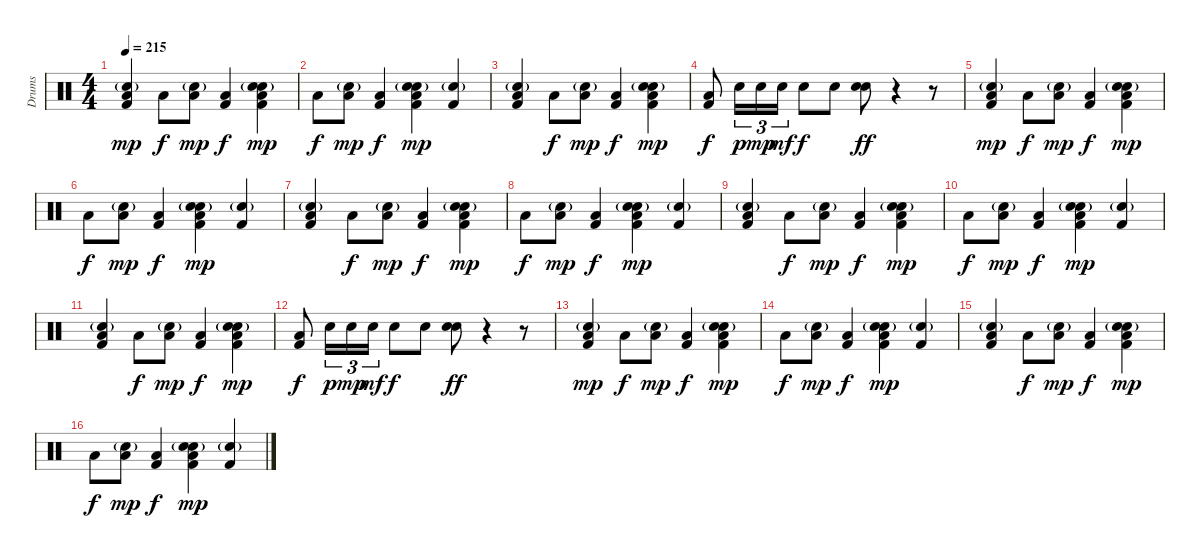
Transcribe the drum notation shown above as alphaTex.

\track ("Drums" "Drums") {instrument percussion}
\staff {score}
\articulation defaults
\ts (4 4)
\tempo 215
\clef neutral
\ks c
("Electric Snare (hit)"{g} "Low Floor Tom (hit)" "Kick (hit) 2").4{dy mp} "Low Floor Tom (hit)".8{dy f} ("Electric Snare (hit)"{g} "Low Floor Tom (hit)").8{dy mp} ("Low Floor Tom (hit)" "Kick (hit) 2").4{dy f} ("Electric Snare (hit)" "Kick (hit) 2" "Low Floor Tom (hit)" "Snare (hit) 2"{g}).4{dy mp} |
"Low Floor Tom (hit)".8{dy f} ("Electric Snare (hit)"{g} "Low Floor Tom (hit)").8{dy mp} ("Low Floor Tom (hit)" "Kick (hit) 2").4{dy f} ("Snare (hit) 2"{g} "Electric Snare (hit)" "Kick (hit) 2" "Low Floor Tom (hit)").4{dy mp} ("Electric Snare (hit)"{g} "Kick (hit) 2").4 |
("Electric Snare (hit)"{g} "Low Floor Tom (hit)" "Kick (hit) 2").4 "Low Floor Tom (hit)".8{dy f} ("Electric Snare (hit)"{g} "Low Floor Tom (hit)").8{dy mp} ("Low Floor Tom (hit)" "Kick (hit) 2").4{dy f} ("Electric Snare (hit)" "Kick (hit) 2" "Low Floor Tom (hit)" "Snare (hit) 2"{g}).4{dy mp} |
("Low Floor Tom (hit)" "Kick (hit) 2").8{dy f} "Snare (hit) 2".16{tu (3 2) dy p} "Snare (hit) 2".16{tu (3 2) dy mp} "Snare (hit) 2".16{tu (3 2) dy mf} "Snare (hit) 2".8{dy f} "Snare (hit) 2".8 ("Electric Snare (hit)" "Snare (hit) 2").8{dy ff} r.4 r.8 |
("Electric Snare (hit)"{g} "Low Floor Tom (hit)" "Kick (hit) 2").4{dy mp} "Low Floor Tom (hit)".8{dy f} ("Electric Snare (hit)"{g} "Low Floor Tom (hit)").8{dy mp} ("Low Floor Tom (hit)" "Kick (hit) 2").4{dy f} ("Electric Snare (hit)" "Kick (hit) 2" "Low Floor Tom (hit)" "Snare (hit) 2"{g}).4{dy mp} |
"Low Floor Tom (hit)".8{dy f} ("Electric Snare (hit)"{g} "Low Floor Tom (hit)").8{dy mp} ("Low Floor Tom (hit)" "Kick (hit) 2").4{dy f} ("Snare (hit) 2"{g} "Electric Snare (hit)" "Kick (hit) 2" "Low Floor Tom (hit)").4{dy mp} ("Electric Snare (hit)"{g} "Kick (hit) 2").4 |
("Electric Snare (hit)"{g} "Low Floor Tom (hit)" "Kick (hit) 2").4 "Low Floor Tom (hit)".8{dy f} ("Electric Snare (hit)"{g} "Low Floor Tom (hit)").8{dy mp} ("Low Floor Tom (hit)" "Kick (hit) 2").4{dy f} ("Electric Snare (hit)" "Kick (hit) 2" "Low Floor Tom (hit)" "Snare (hit) 2"{g}).4{dy mp} |
"Low Floor Tom (hit)".8{dy f} ("Electric Snare (hit)"{g} "Low Floor Tom (hit)").8{dy mp} ("Low Floor Tom (hit)" "Kick (hit) 2").4{dy f} ("Snare (hit) 2"{g} "Electric Snare (hit)" "Kick (hit) 2" "Low Floor Tom (hit)").4{dy mp} ("Electric Snare (hit)"{g} "Kick (hit) 2").4 |
("Electric Snare (hit)"{g} "Low Floor Tom (hit)" "Kick (hit) 2").4 "Low Floor Tom (hit)".8{dy f} ("Electric Snare (hit)"{g} "Low Floor Tom (hit)").8{dy mp} ("Low Floor Tom (hit)" "Kick (hit) 2").4{dy f} ("Electric Snare (hit)" "Kick (hit) 2" "Low Floor Tom (hit)" "Snare (hit) 2"{g}).4{dy mp} |
"Low Floor Tom (hit)".8{dy f} ("Electric Snare (hit)"{g} "Low Floor Tom (hit)").8{dy mp} ("Low Floor Tom (hit)" "Kick (hit) 2").4{dy f} ("Snare (hit) 2"{g} "Electric Snare (hit)" "Kick (hit) 2" "Low Floor Tom (hit)").4{dy mp} ("Electric Snare (hit)"{g} "Kick (hit) 2").4 |
("Electric Snare (hit)"{g} "Low Floor Tom (hit)" "Kick (hit) 2").4 "Low Floor Tom (hit)".8{dy f} ("Electric Snare (hit)"{g} "Low Floor Tom (hit)").8{dy mp} ("Low Floor Tom (hit)" "Kick (hit) 2").4{dy f} ("Electric Snare (hit)" "Kick (hit) 2" "Low Floor Tom (hit)" "Snare (hit) 2"{g}).4{dy mp} |
("Low Floor Tom (hit)" "Kick (hit) 2").8{dy f} "Snare (hit) 2".16{tu (3 2) dy p} "Snare (hit) 2".16{tu (3 2) dy mp} "Snare (hit) 2".16{tu (3 2) dy mf} "Snare (hit) 2".8{dy f} "Snare (hit) 2".8 ("Electric Snare (hit)" "Snare (hit) 2").8{dy ff} r.4 r.8 |
("Electric Snare (hit)"{g} "Low Floor Tom (hit)" "Kick (hit) 2").4{dy mp} "Low Floor Tom (hit)".8{dy f} ("Electric Snare (hit)"{g} "Low Floor Tom (hit)").8{dy mp} ("Low Floor Tom (hit)" "Kick (hit) 2").4{dy f} ("Electric Snare (hit)" "Kick (hit) 2" "Low Floor Tom (hit)" "Snare (hit) 2"{g}).4{dy mp} |
"Low Floor Tom (hit)".8{dy f} ("Electric Snare (hit)"{g} "Low Floor Tom (hit)").8{dy mp} ("Low Floor Tom (hit)" "Kick (hit) 2").4{dy f} ("Snare (hit) 2"{g} "Electric Snare (hit)" "Kick (hit) 2" "Low Floor Tom (hit)").4{dy mp} ("Electric Snare (hit)"{g} "Kick (hit) 2").4 |
("Electric Snare (hit)"{g} "Low Floor Tom (hit)" "Kick (hit) 2").4 "Low Floor Tom (hit)".8{dy f} ("Electric Snare (hit)"{g} "Low Floor Tom (hit)").8{dy mp} ("Low Floor Tom (hit)" "Kick (hit) 2").4{dy f} ("Electric Snare (hit)" "Kick (hit) 2" "Low Floor Tom (hit)" "Snare (hit) 2"{g}).4{dy mp} |
"Low Floor Tom (hit)".8{dy f} ("Electric Snare (hit)"{g} "Low Floor Tom (hit)").8{dy mp} ("Low Floor Tom (hit)" "Kick (hit) 2").4{dy f} ("Snare (hit) 2"{g} "Electric Snare (hit)" "Kick (hit) 2" "Low Floor Tom (hit)").4{dy mp} ("Electric Snare (hit)"{g} "Kick (hit) 2").4
